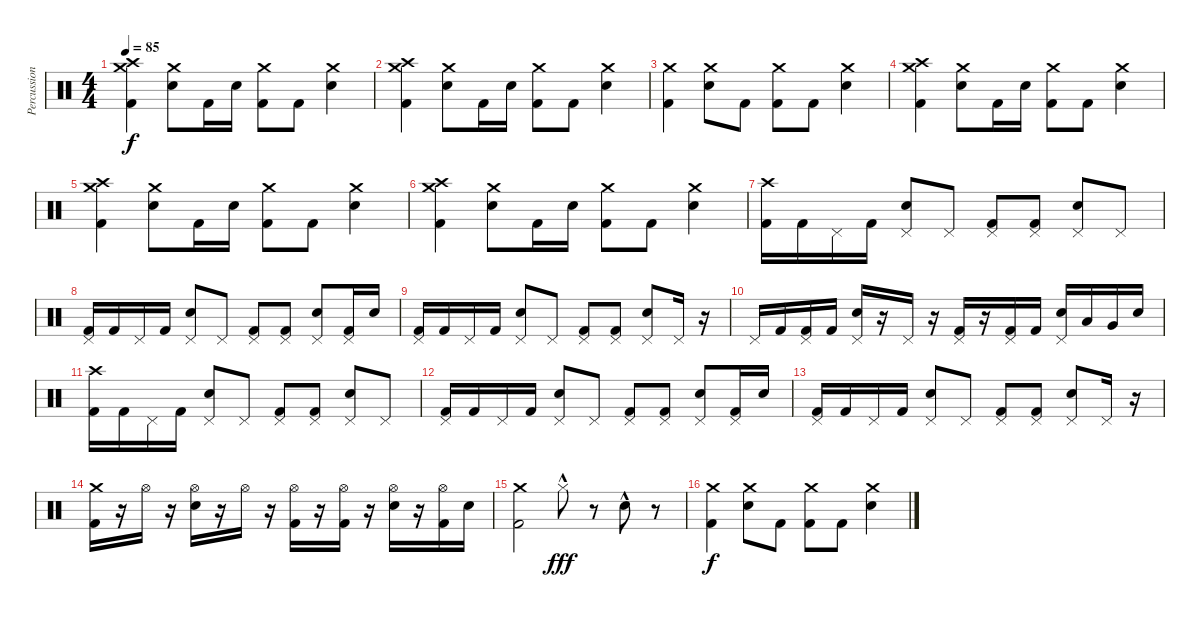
\track ("Percussions" "Percussion") {instrument percussion}
\staff {score}
\articulation defaults
\ts (4 4)
\tempo 85
\clef neutral
\ks c
("Crash high (hit)" "Kick (hit) 2" "Crash medium (hit)").4{dy f} ("Electric Snare (hit)" "Crash medium (hit)").8 "Kick (hit) 2".16 "Electric Snare (hit)".16 ("Kick (hit) 2" "Crash medium (hit)").8 "Kick (hit) 2".8 ("Electric Snare (hit)" "Crash medium (hit)").4 |
("Crash high (hit)" "Kick (hit) 2" "Crash medium (hit)").4 ("Electric Snare (hit)" "Crash medium (hit)").8 "Kick (hit) 2".16 "Electric Snare (hit)".16 ("Kick (hit) 2" "Crash medium (hit)").8 "Kick (hit) 2".8 ("Electric Snare (hit)" "Crash medium (hit)").4 |
("Kick (hit) 2" "Crash medium (hit)").4 ("Electric Snare (hit)" "Crash medium (hit)").8 "Kick (hit) 2".8 ("Kick (hit) 2" "Crash medium (hit)").8 "Kick (hit) 2".8 ("Electric Snare (hit)" "Crash medium (hit)").4 |
("Crash high (hit)" "Kick (hit) 2" "Crash medium (hit)").4 ("Electric Snare (hit)" "Crash medium (hit)").8 "Kick (hit) 2".16 "Electric Snare (hit)".16 ("Kick (hit) 2" "Crash medium (hit)").8 "Kick (hit) 2".8 ("Electric Snare (hit)" "Crash medium (hit)").4 |
("Crash high (hit)" "Kick (hit) 2" "Crash medium (hit)").4 ("Electric Snare (hit)" "Crash medium (hit)").8 "Kick (hit) 2".16 "Electric Snare (hit)".16 ("Kick (hit) 2" "Crash medium (hit)").8 "Kick (hit) 2".8 ("Electric Snare (hit)" "Crash medium (hit)").4 |
("Crash high (hit)" "Kick (hit) 2" "Crash medium (hit)").4 ("Electric Snare (hit)" "Crash medium (hit)").8 "Kick (hit) 2".16 "Electric Snare (hit)".16 ("Kick (hit) 2" "Crash medium (hit)").8 "Kick (hit) 2".8 ("Electric Snare (hit)" "Crash medium (hit)").4 |
("Kick (hit) 2" "Crash high (hit)").16 "Kick (hit) 2".16 "Pedal Hi-Hat (hit)".16 "Kick (hit) 2".16 ("Electric Snare (hit)" "Pedal Hi-Hat (hit)").8 "Pedal Hi-Hat (hit)".8 ("Kick (hit) 2" "Pedal Hi-Hat (hit)").8 ("Kick (hit) 2" "Pedal Hi-Hat (hit)").8 ("Electric Snare (hit)" "Pedal Hi-Hat (hit)").8 "Pedal Hi-Hat (hit)".8 |
("Kick (hit) 2" "Pedal Hi-Hat (hit)").16 "Kick (hit) 2".16 "Pedal Hi-Hat (hit)".16 "Kick (hit) 2".16 ("Electric Snare (hit)" "Pedal Hi-Hat (hit)").8 "Pedal Hi-Hat (hit)".8 ("Kick (hit) 2" "Pedal Hi-Hat (hit)").8 ("Kick (hit) 2" "Pedal Hi-Hat (hit)").8 ("Electric Snare (hit)" "Pedal Hi-Hat (hit)").8 ("Kick (hit) 2" "Pedal Hi-Hat (hit)").16 "Electric Snare (hit)".16 |
("Kick (hit) 2" "Pedal Hi-Hat (hit)").16 "Kick (hit) 2".16 "Pedal Hi-Hat (hit)".16 "Kick (hit) 2".16 ("Electric Snare (hit)" "Pedal Hi-Hat (hit)").8 "Pedal Hi-Hat (hit)".8 ("Kick (hit) 2" "Pedal Hi-Hat (hit)").8 ("Kick (hit) 2" "Pedal Hi-Hat (hit)").8 ("Electric Snare (hit)" "Pedal Hi-Hat (hit)").8 "Pedal Hi-Hat (hit)".16 r.16 |
"Pedal Hi-Hat (hit)".16 "Kick (hit) 2".16 ("Kick (hit) 2" "Pedal Hi-Hat (hit)").16 "Kick (hit) 2".16 ("Electric Snare (hit)" "Pedal Hi-Hat (hit)").16 r.16 "Pedal Hi-Hat (hit)".16 r.16 ("Kick (hit) 2" "Pedal Hi-Hat (hit)").16 r.16 ("Kick (hit) 2" "Pedal Hi-Hat (hit)").16 "Kick (hit) 2".16 ("Electric Snare (hit)" "Pedal Hi-Hat (hit)").16 "Low Tom (hit)".16 "Very Low Tom (hit)".16 "Electric Snare (hit)".16 |
("Kick (hit) 2" "Crash high (hit)").16 "Kick (hit) 2".16 "Pedal Hi-Hat (hit)".16 "Kick (hit) 2".16 ("Electric Snare (hit)" "Pedal Hi-Hat (hit)").8 "Pedal Hi-Hat (hit)".8 ("Kick (hit) 2" "Pedal Hi-Hat (hit)").8 ("Kick (hit) 2" "Pedal Hi-Hat (hit)").8 ("Electric Snare (hit)" "Pedal Hi-Hat (hit)").8 "Pedal Hi-Hat (hit)".8 |
("Kick (hit) 2" "Pedal Hi-Hat (hit)").16 "Kick (hit) 2".16 "Pedal Hi-Hat (hit)".16 "Kick (hit) 2".16 ("Electric Snare (hit)" "Pedal Hi-Hat (hit)").8 "Pedal Hi-Hat (hit)".8 ("Kick (hit) 2" "Pedal Hi-Hat (hit)").8 ("Kick (hit) 2" "Pedal Hi-Hat (hit)").8 ("Electric Snare (hit)" "Pedal Hi-Hat (hit)").8 ("Kick (hit) 2" "Pedal Hi-Hat (hit)").16 "Electric Snare (hit)".16 |
("Kick (hit) 2" "Pedal Hi-Hat (hit)").16 "Kick (hit) 2".16 "Pedal Hi-Hat (hit)".16 "Kick (hit) 2".16 ("Electric Snare (hit)" "Pedal Hi-Hat (hit)").8 "Pedal Hi-Hat (hit)".8 ("Kick (hit) 2" "Pedal Hi-Hat (hit)").8 ("Kick (hit) 2" "Pedal Hi-Hat (hit)").8 ("Electric Snare (hit)" "Pedal Hi-Hat (hit)").8 "Pedal Hi-Hat (hit)".16 r.16 |
("Kick (hit) 2" "Crash medium (hit)").16 r.16 "Hi-Hat (open)".16 r.16 ("Electric Snare (hit)" "Hi-Hat (open)").16 r.16 "Hi-Hat (open)".16 r.16 ("Kick (hit) 2" "Hi-Hat (open)").16 r.16 ("Kick (hit) 2" "Hi-Hat (open)").16 r.16 ("Electric Snare (hit)" "Hi-Hat (open)").16 r.16 ("Kick (hit) 2" "Hi-Hat (open)").16 "Electric Snare (hit)".16 |
("Kick (hit) 2" "Crash medium (hit)").2 "Hi-Hat (closed)"{hac}.8{dy fff} r.8 "Electric Snare (hit)"{hac}.8 r.8 |
("Kick (hit) 2" "Crash medium (hit)").4{dy f} ("Electric Snare (hit)" "Crash medium (hit)").8 "Kick (hit) 2".8 ("Kick (hit) 2" "Crash medium (hit)").8 "Kick (hit) 2".8 ("Electric Snare (hit)" "Crash medium (hit)").4
